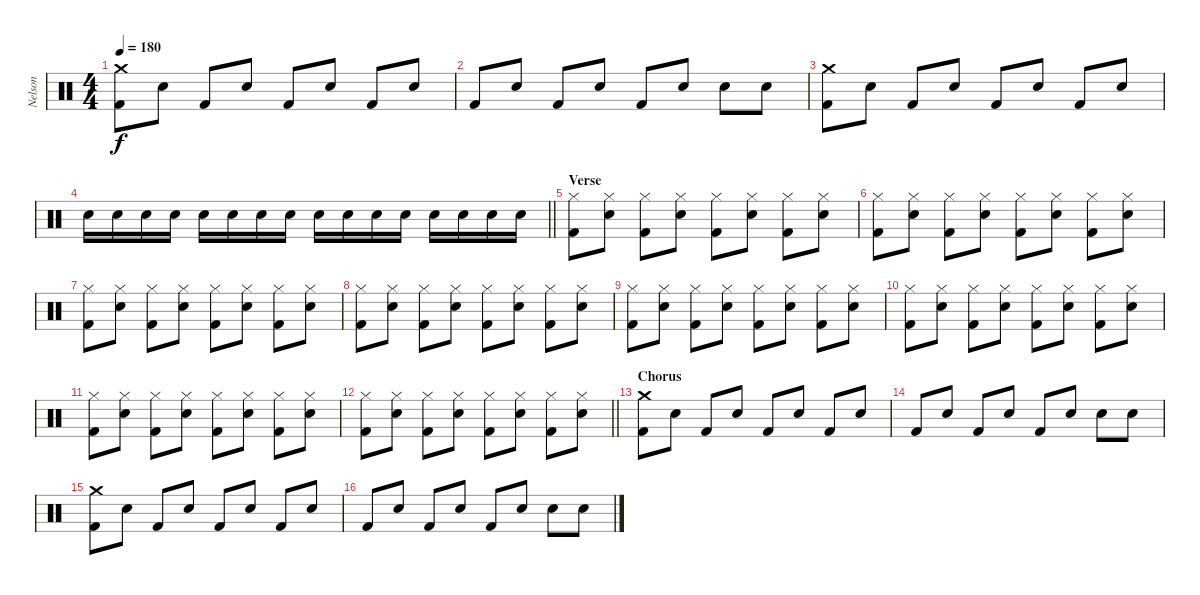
\track ("Nelson" "Nelson") {instrument percussion}
\staff {score}
\articulation defaults
\ts (4 4)
\tempo 180
\clef neutral
\ks c
("Crash medium (hit)" "Kick (hit) 2").8{dy f} "Electric Snare (hit)".8 "Kick (hit) 2".8 "Electric Snare (hit)".8 "Kick (hit) 2".8 "Electric Snare (hit)".8 "Kick (hit) 2".8 "Electric Snare (hit)".8 |
"Kick (hit) 2".8 "Electric Snare (hit)".8 "Kick (hit) 2".8 "Electric Snare (hit)".8 "Kick (hit) 2".8 "Electric Snare (hit)".8 "Electric Snare (hit)".8 "Electric Snare (hit)".8 |
("Crash medium (hit)" "Kick (hit) 2").8 "Electric Snare (hit)".8 "Kick (hit) 2".8 "Electric Snare (hit)".8 "Kick (hit) 2".8 "Electric Snare (hit)".8 "Kick (hit) 2".8 "Electric Snare (hit)".8 |
\barLineRight lightlight "Electric Snare (hit)".16 "Electric Snare (hit)".16 "Electric Snare (hit)".16 "Electric Snare (hit)".16 "Electric Snare (hit)".16 "Electric Snare (hit)".16 "Electric Snare (hit)".16 "Electric Snare (hit)".16 "Electric Snare (hit)".16 "Electric Snare (hit)".16 "Electric Snare (hit)".16 "Electric Snare (hit)".16 "Electric Snare (hit)".16 "Electric Snare (hit)".16 "Electric Snare (hit)".16 "Electric Snare (hit)".16
|
\section ("" "Verse")
("Hi-Hat (closed)" "Kick (hit) 2").8 ("Electric Snare (hit)" "Hi-Hat (closed)").8 ("Hi-Hat (closed)" "Kick (hit) 2").8 ("Electric Snare (hit)" "Hi-Hat (closed)").8 ("Hi-Hat (closed)" "Kick (hit) 2").8 ("Electric Snare (hit)" "Hi-Hat (closed)").8 ("Hi-Hat (closed)" "Kick (hit) 2").8 ("Electric Snare (hit)" "Hi-Hat (closed)").8 |
("Hi-Hat (closed)" "Kick (hit) 2").8 ("Electric Snare (hit)" "Hi-Hat (closed)").8 ("Hi-Hat (closed)" "Kick (hit) 2").8 ("Electric Snare (hit)" "Hi-Hat (closed)").8 ("Hi-Hat (closed)" "Kick (hit) 2").8 ("Electric Snare (hit)" "Hi-Hat (closed)").8 ("Hi-Hat (closed)" "Kick (hit) 2").8 ("Electric Snare (hit)" "Hi-Hat (closed)").8 |
("Hi-Hat (closed)" "Kick (hit) 2").8 ("Electric Snare (hit)" "Hi-Hat (closed)").8 ("Hi-Hat (closed)" "Kick (hit) 2").8 ("Electric Snare (hit)" "Hi-Hat (closed)").8 ("Hi-Hat (closed)" "Kick (hit) 2").8 ("Electric Snare (hit)" "Hi-Hat (closed)").8 ("Hi-Hat (closed)" "Kick (hit) 2").8 ("Electric Snare (hit)" "Hi-Hat (closed)").8 |
("Hi-Hat (closed)" "Kick (hit) 2").8 ("Electric Snare (hit)" "Hi-Hat (closed)").8 ("Hi-Hat (closed)" "Kick (hit) 2").8 ("Electric Snare (hit)" "Hi-Hat (closed)").8 ("Hi-Hat (closed)" "Kick (hit) 2").8 ("Electric Snare (hit)" "Hi-Hat (closed)").8 ("Hi-Hat (closed)" "Kick (hit) 2").8 ("Electric Snare (hit)" "Hi-Hat (closed)").8 |
("Hi-Hat (closed)" "Kick (hit) 2").8 ("Electric Snare (hit)" "Hi-Hat (closed)").8 ("Hi-Hat (closed)" "Kick (hit) 2").8 ("Electric Snare (hit)" "Hi-Hat (closed)").8 ("Hi-Hat (closed)" "Kick (hit) 2").8 ("Electric Snare (hit)" "Hi-Hat (closed)").8 ("Hi-Hat (closed)" "Kick (hit) 2").8 ("Electric Snare (hit)" "Hi-Hat (closed)").8 |
("Hi-Hat (closed)" "Kick (hit) 2").8 ("Electric Snare (hit)" "Hi-Hat (closed)").8 ("Hi-Hat (closed)" "Kick (hit) 2").8 ("Electric Snare (hit)" "Hi-Hat (closed)").8 ("Hi-Hat (closed)" "Kick (hit) 2").8 ("Electric Snare (hit)" "Hi-Hat (closed)").8 ("Hi-Hat (closed)" "Kick (hit) 2").8 ("Electric Snare (hit)" "Hi-Hat (closed)").8 |
("Hi-Hat (closed)" "Kick (hit) 2").8 ("Electric Snare (hit)" "Hi-Hat (closed)").8 ("Hi-Hat (closed)" "Kick (hit) 2").8 ("Electric Snare (hit)" "Hi-Hat (closed)").8 ("Hi-Hat (closed)" "Kick (hit) 2").8 ("Electric Snare (hit)" "Hi-Hat (closed)").8 ("Hi-Hat (closed)" "Kick (hit) 2").8 ("Electric Snare (hit)" "Hi-Hat (closed)").8 |
\barLineRight lightlight
("Hi-Hat (closed)" "Kick (hit) 2").8 ("Electric Snare (hit)" "Hi-Hat (closed)").8 ("Hi-Hat (closed)" "Kick (hit) 2").8 ("Electric Snare (hit)" "Hi-Hat (closed)").8 ("Hi-Hat (closed)" "Kick (hit) 2").8 ("Electric Snare (hit)" "Hi-Hat (closed)").8 ("Hi-Hat (closed)" "Kick (hit) 2").8 ("Electric Snare (hit)" "Hi-Hat (closed)").8 |
\section ("" "Chorus")
("Crash medium (hit)" "Kick (hit) 2").8 "Electric Snare (hit)".8 "Kick (hit) 2".8 "Electric Snare (hit)".8 "Kick (hit) 2".8 "Electric Snare (hit)".8 "Kick (hit) 2".8 "Electric Snare (hit)".8 |
"Kick (hit) 2".8 "Electric Snare (hit)".8 "Kick (hit) 2".8 "Electric Snare (hit)".8 "Kick (hit) 2".8 "Electric Snare (hit)".8 "Electric Snare (hit)".8 "Electric Snare (hit)".8 |
("Crash medium (hit)" "Kick (hit) 2").8 "Electric Snare (hit)".8 "Kick (hit) 2".8 "Electric Snare (hit)".8 "Kick (hit) 2".8 "Electric Snare (hit)".8 "Kick (hit) 2".8 "Electric Snare (hit)".8 |
"Kick (hit) 2".8 "Electric Snare (hit)".8 "Kick (hit) 2".8 "Electric Snare (hit)".8 "Kick (hit) 2".8 "Electric Snare (hit)".8 "Electric Snare (hit)".8 "Electric Snare (hit)".8
